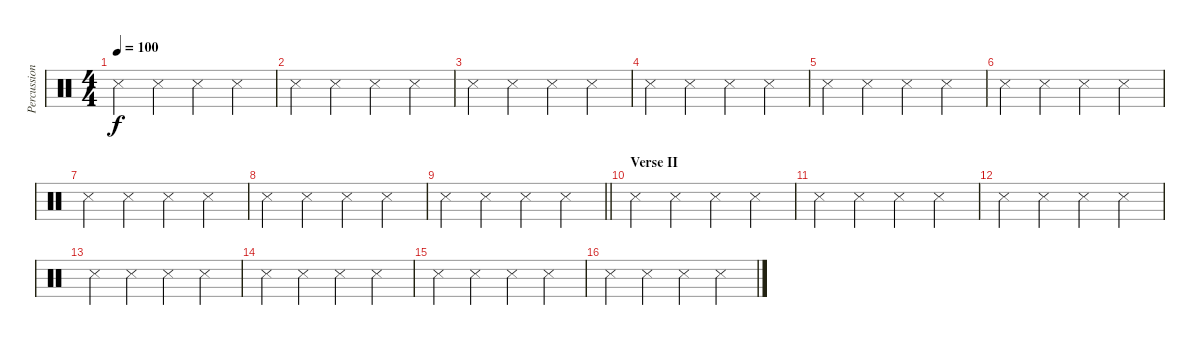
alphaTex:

\track ("Percussion" "Percussion") {mute instrument percussion}
\staff {score}
\articulation defaults
\ts (4 4)
\tempo 100
\clef neutral
\ks c "Metronome (hit)".4{dy f} "Snare (side stick) 3".4 "Snare (side stick) 3".4 "Snare (side stick) 3".4
|
"Metronome (hit)".4 "Snare (side stick) 3".4 "Snare (side stick) 3".4 "Snare (side stick) 3".4 |
"Metronome (hit)".4 "Snare (side stick) 3".4 "Snare (side stick) 3".4 "Snare (side stick) 3".4 |
"Metronome (hit)".4 "Snare (side stick) 3".4 "Snare (side stick) 3".4 "Snare (side stick) 3".4 |
"Metronome (hit)".4 "Snare (side stick) 3".4 "Snare (side stick) 3".4 "Snare (side stick) 3".4 |
"Metronome (hit)".4 "Snare (side stick) 3".4 "Snare (side stick) 3".4 "Snare (side stick) 3".4 |
"Metronome (hit)".4 "Snare (side stick) 3".4 "Snare (side stick) 3".4 "Snare (side stick) 3".4 |
"Metronome (hit)".4 "Snare (side stick) 3".4 "Snare (side stick) 3".4 "Snare (side stick) 3".4 |
\barLineRight lightlight "Metronome (hit)".4 "Snare (side stick) 3".4 "Snare (side stick) 3".4 "Snare (side stick) 3".4
|
\section ("" "Verse II")
"Metronome (hit)".4 "Snare (side stick) 3".4 "Snare (side stick) 3".4 "Snare (side stick) 3".4 |
"Metronome (hit)".4 "Snare (side stick) 3".4 "Snare (side stick) 3".4 "Snare (side stick) 3".4 |
"Metronome (hit)".4 "Snare (side stick) 3".4 "Snare (side stick) 3".4 "Snare (side stick) 3".4 |
"Metronome (hit)".4 "Snare (side stick) 3".4 "Snare (side stick) 3".4 "Snare (side stick) 3".4 |
"Metronome (hit)".4 "Snare (side stick) 3".4 "Snare (side stick) 3".4 "Snare (side stick) 3".4 |
"Metronome (hit)".4 "Snare (side stick) 3".4 "Snare (side stick) 3".4 "Snare (side stick) 3".4 |
"Metronome (hit)".4 "Snare (side stick) 3".4 "Snare (side stick) 3".4 "Snare (side stick) 3".4
